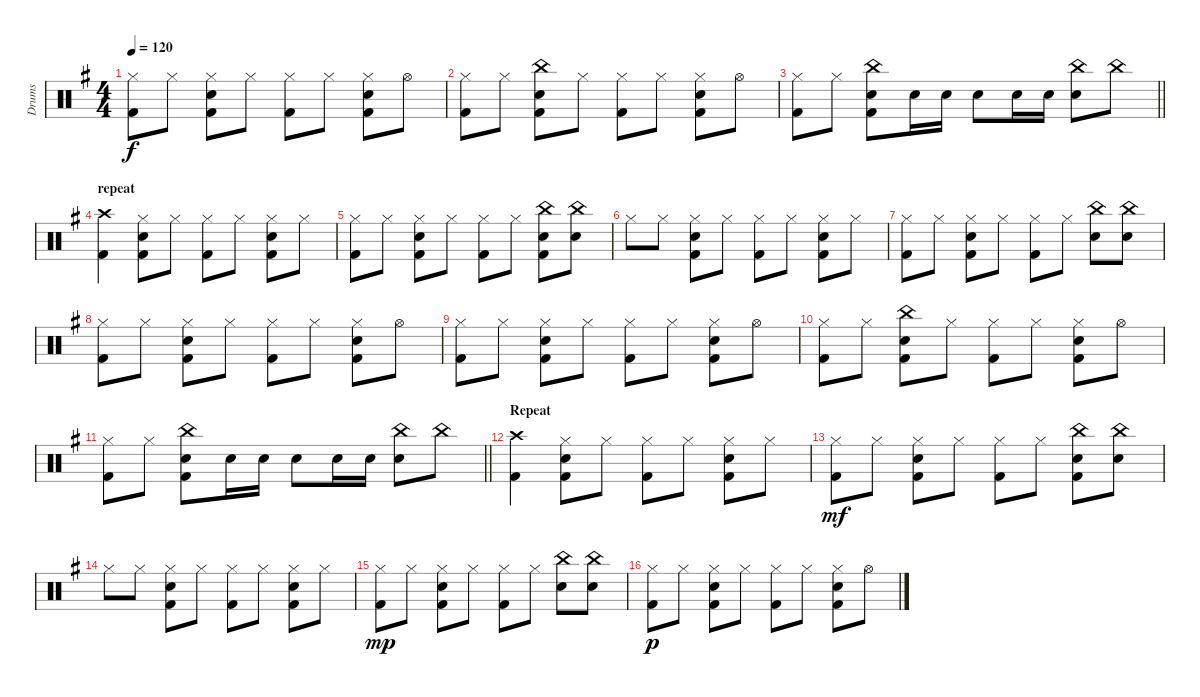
\track ("Drums" "Drums") {instrument percussion}
\staff {score}
\articulation defaults
\ts (4 4)
\tempo 120
\clef neutral
\ks g
("Hi-Hat (closed)" "Kick (hit) 2").8{dy f} "Hi-Hat (closed)".8 ("Hi-Hat (closed)" "Electric Snare (hit)" "Kick (hit) 2").8 "Hi-Hat (closed)".8 ("Hi-Hat (closed)" "Kick (hit) 2").8 "Hi-Hat (closed)".8 ("Hi-Hat (closed)" "Electric Snare (hit)" "Kick (hit) 2").8 "Hi-Hat (open)".8 |
("Hi-Hat (closed)" "Kick (hit) 2").8 "Hi-Hat (closed)".8 ("China (hit)" "Electric Snare (hit)" "Kick (hit) 2").8 "Hi-Hat (closed)".8 ("Hi-Hat (closed)" "Kick (hit) 2").8 "Hi-Hat (closed)".8 ("Hi-Hat (closed)" "Electric Snare (hit)" "Kick (hit) 2").8 "Hi-Hat (open)".8 |
\barLineRight lightlight
("Hi-Hat (closed)" "Kick (hit) 2").8 "Hi-Hat (closed)".8 ("China (hit)" "Electric Snare (hit)" "Kick (hit) 2").8 "Electric Snare (hit)".16 "Electric Snare (hit)".16 "Electric Snare (hit)".8 "Electric Snare (hit)".16 "Electric Snare (hit)".16 ("China (hit)" "Electric Snare (hit)").8 "China (hit)".8 |
\section ("" "repeat")
("Crash high (hit)" "Kick (hit) 2").4 ("Hi-Hat (closed)" "Electric Snare (hit)" "Kick (hit) 2").8 "Hi-Hat (closed)".8 ("Hi-Hat (closed)" "Kick (hit) 2").8 "Hi-Hat (closed)".8 ("Hi-Hat (closed)" "Electric Snare (hit)" "Kick (hit) 2").8 "Hi-Hat (closed)".8 |
("Hi-Hat (closed)" "Kick (hit) 2").8 "Hi-Hat (closed)".8 ("Hi-Hat (closed)" "Electric Snare (hit)" "Kick (hit) 2").8 "Hi-Hat (closed)".8 ("Hi-Hat (closed)" "Kick (hit) 2").8 "Hi-Hat (closed)".8 ("China (hit)" "Electric Snare (hit)" "Kick (hit) 2").8 ("China (hit)" "Electric Snare (hit)").8 |
"Hi-Hat (closed)".8 "Hi-Hat (closed)".8 ("Hi-Hat (closed)" "Electric Snare (hit)" "Kick (hit) 2").8 "Hi-Hat (closed)".8 ("Hi-Hat (closed)" "Kick (hit) 2").8 "Hi-Hat (closed)".8 ("Hi-Hat (closed)" "Electric Snare (hit)" "Kick (hit) 2").8 "Hi-Hat (closed)".8 |
("Hi-Hat (closed)" "Kick (hit) 2").8 "Hi-Hat (closed)".8 ("Hi-Hat (closed)" "Electric Snare (hit)" "Kick (hit) 2").8 "Hi-Hat (closed)".8 ("Hi-Hat (closed)" "Kick (hit) 2").8 "Hi-Hat (closed)".8 ("China (hit)" "Electric Snare (hit)").8 ("China (hit)" "Electric Snare (hit)").8 |
("Hi-Hat (closed)" "Kick (hit) 2").8 "Hi-Hat (closed)".8 ("Hi-Hat (closed)" "Electric Snare (hit)" "Kick (hit) 2").8 "Hi-Hat (closed)".8 ("Hi-Hat (closed)" "Kick (hit) 2").8 "Hi-Hat (closed)".8 ("Hi-Hat (closed)" "Electric Snare (hit)" "Kick (hit) 2").8 "Hi-Hat (open)".8 |
("Hi-Hat (closed)" "Kick (hit) 2").8 "Hi-Hat (closed)".8 ("Hi-Hat (closed)" "Electric Snare (hit)" "Kick (hit) 2").8 "Hi-Hat (closed)".8 ("Hi-Hat (closed)" "Kick (hit) 2").8 "Hi-Hat (closed)".8 ("Hi-Hat (closed)" "Electric Snare (hit)" "Kick (hit) 2").8 "Hi-Hat (open)".8 |
("Hi-Hat (closed)" "Kick (hit) 2").8 "Hi-Hat (closed)".8 ("China (hit)" "Electric Snare (hit)" "Kick (hit) 2").8 "Hi-Hat (closed)".8 ("Hi-Hat (closed)" "Kick (hit) 2").8 "Hi-Hat (closed)".8 ("Hi-Hat (closed)" "Electric Snare (hit)" "Kick (hit) 2").8 "Hi-Hat (open)".8 |
\barLineRight lightlight
("Hi-Hat (closed)" "Kick (hit) 2").8 "Hi-Hat (closed)".8 ("China (hit)" "Electric Snare (hit)" "Kick (hit) 2").8 "Electric Snare (hit)".16 "Electric Snare (hit)".16 "Electric Snare (hit)".8 "Electric Snare (hit)".16 "Electric Snare (hit)".16 ("China (hit)" "Electric Snare (hit)").8 "China (hit)".8 |
\section ("" "Repeat")
("Crash high (hit)" "Kick (hit) 2").4 ("Hi-Hat (closed)" "Electric Snare (hit)" "Kick (hit) 2").8 "Hi-Hat (closed)".8 ("Hi-Hat (closed)" "Kick (hit) 2").8 "Hi-Hat (closed)".8 ("Hi-Hat (closed)" "Electric Snare (hit)" "Kick (hit) 2").8 "Hi-Hat (closed)".8 |
("Hi-Hat (closed)" "Kick (hit) 2").8{dy mf} "Hi-Hat (closed)".8 ("Hi-Hat (closed)" "Electric Snare (hit)" "Kick (hit) 2").8 "Hi-Hat (closed)".8 ("Hi-Hat (closed)" "Kick (hit) 2").8 "Hi-Hat (closed)".8 ("China (hit)" "Electric Snare (hit)" "Kick (hit) 2").8 ("China (hit)" "Electric Snare (hit)").8 |
"Hi-Hat (closed)".8 "Hi-Hat (closed)".8 ("Hi-Hat (closed)" "Electric Snare (hit)" "Kick (hit) 2").8 "Hi-Hat (closed)".8 ("Hi-Hat (closed)" "Kick (hit) 2").8 "Hi-Hat (closed)".8 ("Hi-Hat (closed)" "Electric Snare (hit)" "Kick (hit) 2").8 "Hi-Hat (closed)".8 |
("Hi-Hat (closed)" "Kick (hit) 2").8{dy mp} "Hi-Hat (closed)".8 ("Hi-Hat (closed)" "Electric Snare (hit)" "Kick (hit) 2").8 "Hi-Hat (closed)".8 ("Hi-Hat (closed)" "Kick (hit) 2").8 "Hi-Hat (closed)".8 ("China (hit)" "Electric Snare (hit)").8 ("China (hit)" "Electric Snare (hit)").8 |
("Hi-Hat (closed)" "Kick (hit) 2").8{dy p} "Hi-Hat (closed)".8 ("Hi-Hat (closed)" "Electric Snare (hit)" "Kick (hit) 2").8 "Hi-Hat (closed)".8 ("Hi-Hat (closed)" "Kick (hit) 2").8 "Hi-Hat (closed)".8 ("Hi-Hat (closed)" "Electric Snare (hit)" "Kick (hit) 2").8 "Hi-Hat (open)".8
